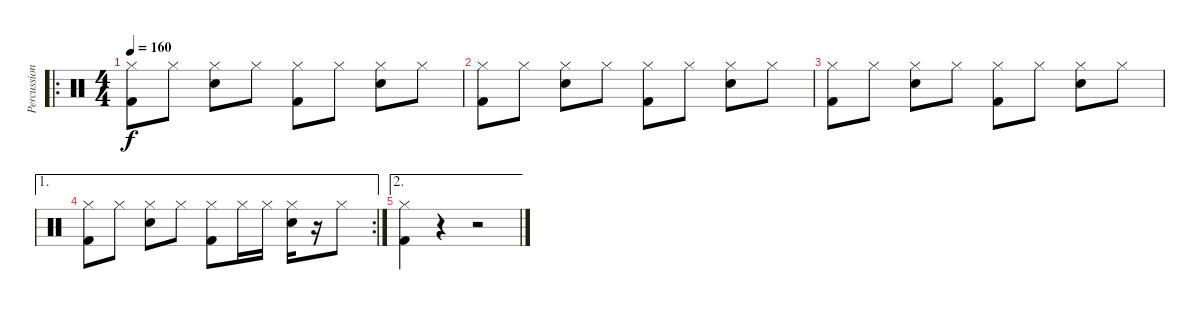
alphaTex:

\track ("Percussions" "Percussion") {instrument percussion}
\staff {score}
\articulation defaults
\ro
\ts (4 4)
\tempo 160
\clef neutral
\ks c
("Hi-Hat (closed)" "Kick (hit) 2").8{dy f} "Hi-Hat (closed)".8 ("Hi-Hat (closed)" "Electric Snare (hit)").8 "Hi-Hat (closed)".8 ("Hi-Hat (closed)" "Kick (hit) 2").8 "Hi-Hat (closed)".8 ("Hi-Hat (closed)" "Electric Snare (hit)").8 "Hi-Hat (closed)".8 |
("Hi-Hat (closed)" "Kick (hit) 2").8 "Hi-Hat (closed)".8 ("Hi-Hat (closed)" "Electric Snare (hit)").8 "Hi-Hat (closed)".8 ("Hi-Hat (closed)" "Kick (hit) 2").8 "Hi-Hat (closed)".8 ("Hi-Hat (closed)" "Electric Snare (hit)").8 "Hi-Hat (closed)".8 |
("Hi-Hat (closed)" "Kick (hit) 2").8 "Hi-Hat (closed)".8 ("Hi-Hat (closed)" "Electric Snare (hit)").8 "Hi-Hat (closed)".8 ("Hi-Hat (closed)" "Kick (hit) 2").8 "Hi-Hat (closed)".8 ("Hi-Hat (closed)" "Electric Snare (hit)").8 "Hi-Hat (closed)".8 |
\ae 1
\rc 2
("Hi-Hat (closed)" "Kick (hit) 2").8 "Hi-Hat (closed)".8 ("Hi-Hat (closed)" "Electric Snare (hit)").8 "Hi-Hat (closed)".8 ("Hi-Hat (closed)" "Kick (hit) 2").8 "Hi-Hat (closed)".16 "Hi-Hat (closed)".16 ("Hi-Hat (closed)" "Electric Snare (hit)").16 r.16 "Hi-Hat (closed)".8 |
\ae 2
("Hi-Hat (closed)" "Kick (hit) 2").4 r.4 r.2
